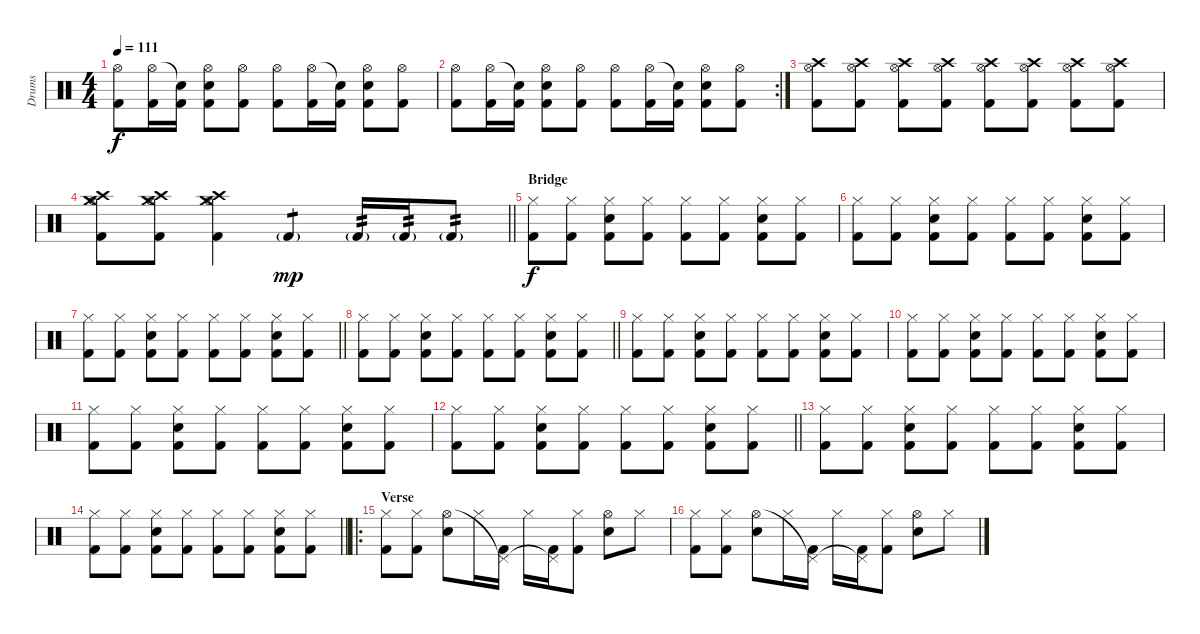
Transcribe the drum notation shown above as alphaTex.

\track ("Drums" "Drums") {instrument percussion}
\staff {score}
\articulation defaults
\ts (4 4)
\tempo 111
\clef neutral
\ks c
("Kick (hit) 2" "Hi-Hat (open)").8{dy f} ("Kick (hit) 2" "Hi-Hat (open)").16 ("Kick (hit) 2" "Snare (hit)"{t}).16 ("Electric Snare (hit)" "Kick (hit) 2" "Hi-Hat (open)").8 ("Kick (hit) 2" "Hi-Hat (open)").8 ("Kick (hit) 2" "Hi-Hat (open)").8 ("Kick (hit) 2" "Hi-Hat (open)").16 ("Kick (hit) 2" "Snare (hit)"{t}).16 ("Electric Snare (hit)" "Kick (hit) 2" "Hi-Hat (open)").8 ("Kick (hit) 2" "Hi-Hat (open)").8 |
\rc 2
("Kick (hit) 2" "Hi-Hat (open)").8 ("Kick (hit) 2" "Hi-Hat (open)").16 ("Kick (hit) 2" "Snare (hit)"{t}).16 ("Electric Snare (hit)" "Kick (hit) 2" "Hi-Hat (open)").8 ("Kick (hit) 2" "Hi-Hat (open)").8 ("Kick (hit) 2" "Hi-Hat (open)").8 ("Kick (hit) 2" "Hi-Hat (open)").16 ("Kick (hit) 2" "Snare (hit)"{t}).16 ("Electric Snare (hit)" "Kick (hit) 2" "Hi-Hat (open)").8 ("Kick (hit) 2" "Hi-Hat (open)").8 |
("Crash high (hit)" "Kick (hit) 2" "Hi-Hat (open)").8 ("Crash high (hit)" "Kick (hit) 2" "Hi-Hat (open)").8 ("Crash high (hit)" "Kick (hit) 2" "Hi-Hat (open)").8 ("Crash high (hit)" "Kick (hit) 2" "Hi-Hat (open)").8 ("Crash high (hit)" "Kick (hit) 2" "Hi-Hat (open)").8 ("Crash high (hit)" "Kick (hit) 2" "Hi-Hat (open)").8 ("Crash high (hit)" "Kick (hit) 2" "Hi-Hat (open)").8 ("Crash high (hit)" "Kick (hit) 2" "Hi-Hat (open)").8 |
\barLineRight lightlight
("Crash medium (hit)" "Crash high (hit)" "Kick (hit) 2" "Hi-Hat (open)").8 ("Crash medium (hit)" "Crash high (hit)" "Kick (hit) 2" "Hi-Hat (open)").8 ("Crash medium (hit)" "Crash high (hit)" "Kick (hit) 2" "Hi-Hat (open)").4 "Kick (hit) 2"{g}.4{tp 1 dy mp} "Kick (hit) 2"{g}.16{tp 2} "Kick (hit) 2"{g}.16{tp 2} "Kick (hit) 2"{g}.8{tp 2} |
\section ("" "Bridge")
("Kick (hit) 2" "Hi-Hat (closed)").8{dy f} ("Kick (hit) 2" "Hi-Hat (closed)").8 ("Electric Snare (hit)" "Kick (hit) 2" "Hi-Hat (closed)").8 ("Kick (hit) 2" "Hi-Hat (closed)").8 ("Kick (hit) 2" "Hi-Hat (closed)").8 ("Kick (hit) 2" "Hi-Hat (closed)").8 ("Electric Snare (hit)" "Kick (hit) 2" "Hi-Hat (closed)").8 ("Kick (hit) 2" "Hi-Hat (closed)").8 |
("Kick (hit) 2" "Hi-Hat (closed)").8 ("Kick (hit) 2" "Hi-Hat (closed)").8 ("Electric Snare (hit)" "Kick (hit) 2" "Hi-Hat (closed)").8 ("Kick (hit) 2" "Hi-Hat (closed)").8 ("Kick (hit) 2" "Hi-Hat (closed)").8 ("Kick (hit) 2" "Hi-Hat (closed)").8 ("Electric Snare (hit)" "Kick (hit) 2" "Hi-Hat (closed)").8 ("Kick (hit) 2" "Hi-Hat (closed)").8 |
\barLineRight lightlight
("Kick (hit) 2" "Hi-Hat (closed)").8 ("Kick (hit) 2" "Hi-Hat (closed)").8 ("Electric Snare (hit)" "Kick (hit) 2" "Hi-Hat (closed)").8 ("Kick (hit) 2" "Hi-Hat (closed)").8 ("Kick (hit) 2" "Hi-Hat (closed)").8 ("Kick (hit) 2" "Hi-Hat (closed)").8 ("Electric Snare (hit)" "Kick (hit) 2" "Hi-Hat (closed)").8 ("Kick (hit) 2" "Hi-Hat (closed)").8 |
\barLineRight lightlight
("Kick (hit) 2" "Hi-Hat (closed)").8 ("Kick (hit) 2" "Hi-Hat (closed)").8 ("Electric Snare (hit)" "Kick (hit) 2" "Hi-Hat (closed)").8 ("Kick (hit) 2" "Hi-Hat (closed)").8 ("Kick (hit) 2" "Hi-Hat (closed)").8 ("Kick (hit) 2" "Hi-Hat (closed)").8 ("Electric Snare (hit)" "Kick (hit) 2" "Hi-Hat (closed)").8 ("Kick (hit) 2" "Hi-Hat (closed)").8 |
("Kick (hit) 2" "Hi-Hat (closed)").8 ("Kick (hit) 2" "Hi-Hat (closed)").8 ("Electric Snare (hit)" "Kick (hit) 2" "Hi-Hat (closed)").8 ("Kick (hit) 2" "Hi-Hat (closed)").8 ("Kick (hit) 2" "Hi-Hat (closed)").8 ("Kick (hit) 2" "Hi-Hat (closed)").8 ("Electric Snare (hit)" "Kick (hit) 2" "Hi-Hat (closed)").8 ("Kick (hit) 2" "Hi-Hat (closed)").8 |
("Kick (hit) 2" "Hi-Hat (closed)").8 ("Kick (hit) 2" "Hi-Hat (closed)").8 ("Electric Snare (hit)" "Kick (hit) 2" "Hi-Hat (closed)").8 ("Kick (hit) 2" "Hi-Hat (closed)").8 ("Kick (hit) 2" "Hi-Hat (closed)").8 ("Kick (hit) 2" "Hi-Hat (closed)").8 ("Electric Snare (hit)" "Kick (hit) 2" "Hi-Hat (closed)").8 ("Kick (hit) 2" "Hi-Hat (closed)").8 |
("Kick (hit) 2" "Hi-Hat (closed)").8 ("Kick (hit) 2" "Hi-Hat (closed)").8 ("Electric Snare (hit)" "Kick (hit) 2" "Hi-Hat (closed)").8 ("Kick (hit) 2" "Hi-Hat (closed)").8 ("Kick (hit) 2" "Hi-Hat (closed)").8 ("Kick (hit) 2" "Hi-Hat (closed)").8 ("Electric Snare (hit)" "Kick (hit) 2" "Hi-Hat (closed)").8 ("Kick (hit) 2" "Hi-Hat (closed)").8 |
\barLineRight lightlight
("Kick (hit) 2" "Hi-Hat (closed)").8 ("Kick (hit) 2" "Hi-Hat (closed)").8 ("Electric Snare (hit)" "Kick (hit) 2" "Hi-Hat (closed)").8 ("Kick (hit) 2" "Hi-Hat (closed)").8 ("Kick (hit) 2" "Hi-Hat (closed)").8 ("Kick (hit) 2" "Hi-Hat (closed)").8 ("Electric Snare (hit)" "Kick (hit) 2" "Hi-Hat (closed)").8 ("Kick (hit) 2" "Hi-Hat (closed)").8 |
("Kick (hit) 2" "Hi-Hat (closed)").8 ("Kick (hit) 2" "Hi-Hat (closed)").8 ("Electric Snare (hit)" "Kick (hit) 2" "Hi-Hat (closed)").8 ("Kick (hit) 2" "Hi-Hat (closed)").8 ("Kick (hit) 2" "Hi-Hat (closed)").8 ("Kick (hit) 2" "Hi-Hat (closed)").8 ("Electric Snare (hit)" "Kick (hit) 2" "Hi-Hat (closed)").8 ("Kick (hit) 2" "Hi-Hat (closed)").8 |
\barLineRight lightlight
("Kick (hit) 2" "Hi-Hat (closed)").8 ("Kick (hit) 2" "Hi-Hat (closed)").8 ("Electric Snare (hit)" "Kick (hit) 2" "Hi-Hat (closed)").8 ("Kick (hit) 2" "Hi-Hat (closed)").8 ("Kick (hit) 2" "Hi-Hat (closed)").8 ("Kick (hit) 2" "Hi-Hat (closed)").8 ("Electric Snare (hit)" "Kick (hit) 2" "Hi-Hat (closed)").8 ("Kick (hit) 2" "Hi-Hat (closed)").8 |
\ro
\section ("" "Verse")
("Kick (hit) 2" "Hi-Hat (closed)").8 ("Kick (hit) 2" "Hi-Hat (closed)").8 ("Electric Snare (hit)" "Hi-Hat (open)").8 "Hi-Hat (closed)".16 ("Kick (hit) 2" "Pedal Hi-Hat (hit)"{t}).16 "Hi-Hat (closed)".16 ("Kick (hit) 2" "Pedal Hi-Hat (hit)"{t}).16 ("Kick (hit) 2" "Hi-Hat (closed)").8 ("Electric Snare (hit)" "Hi-Hat (open)").8 "Hi-Hat (closed)".8 |
("Kick (hit) 2" "Hi-Hat (closed)").8 ("Kick (hit) 2" "Hi-Hat (closed)").8 ("Electric Snare (hit)" "Hi-Hat (open)").8 "Hi-Hat (closed)".16 ("Kick (hit) 2" "Pedal Hi-Hat (hit)"{t}).16 "Hi-Hat (closed)".16 ("Kick (hit) 2" "Pedal Hi-Hat (hit)"{t}).16 ("Kick (hit) 2" "Hi-Hat (closed)").8 ("Electric Snare (hit)" "Hi-Hat (open)").8 "Hi-Hat (closed)".8
